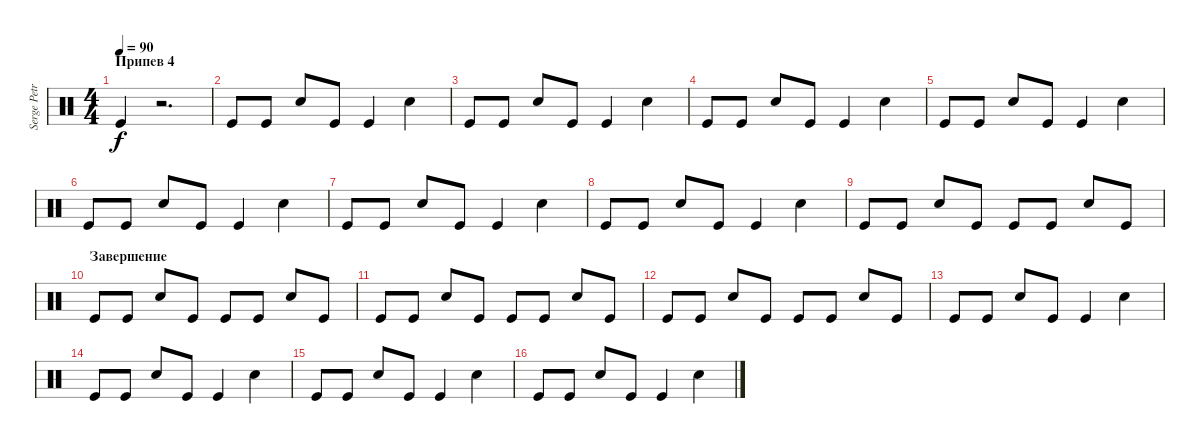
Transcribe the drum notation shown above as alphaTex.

\track ("Serge Petrone" "Serge Petr") {instrument percussion}
\staff {score}
\articulation defaults
\ts (4 4)
\section ("" "Припев 4")
\tempo 90
\clef neutral
\ks c "Kick (hit)".4{dy f}
r.2{d} |
"Kick (hit)".8 "Kick (hit)".8 "Snare (hit) 2".8 "Kick (hit)".8 "Kick (hit)".4 "Snare (hit) 2".4 |
"Kick (hit)".8 "Kick (hit)".8 "Snare (hit) 2".8 "Kick (hit)".8 "Kick (hit)".4 "Snare (hit) 2".4 |
"Kick (hit)".8 "Kick (hit)".8 "Snare (hit) 2".8 "Kick (hit)".8 "Kick (hit)".4 "Snare (hit) 2".4 |
"Kick (hit)".8 "Kick (hit)".8 "Snare (hit) 2".8 "Kick (hit)".8 "Kick (hit)".4 "Snare (hit) 2".4 |
"Kick (hit)".8 "Kick (hit)".8 "Snare (hit) 2".8 "Kick (hit)".8 "Kick (hit)".4 "Snare (hit) 2".4 |
"Kick (hit)".8 "Kick (hit)".8 "Snare (hit) 2".8 "Kick (hit)".8 "Kick (hit)".4 "Snare (hit) 2".4 |
"Kick (hit)".8 "Kick (hit)".8 "Snare (hit) 2".8 "Kick (hit)".8 "Kick (hit)".4 "Snare (hit) 2".4 |
"Kick (hit)".8 "Kick (hit)".8 "Snare (hit) 2".8 "Kick (hit)".8 "Kick (hit)".8 "Kick (hit)".8 "Snare (hit) 2".8 "Kick (hit)".8 |
\section ("" "Завершение")
"Kick (hit)".8 "Kick (hit)".8 "Snare (hit) 2".8 "Kick (hit)".8 "Kick (hit)".8 "Kick (hit)".8 "Snare (hit) 2".8 "Kick (hit)".8 |
"Kick (hit)".8 "Kick (hit)".8 "Snare (hit) 2".8 "Kick (hit)".8 "Kick (hit)".8 "Kick (hit)".8 "Snare (hit) 2".8 "Kick (hit)".8 |
"Kick (hit)".8 "Kick (hit)".8 "Snare (hit) 2".8 "Kick (hit)".8 "Kick (hit)".8 "Kick (hit)".8 "Snare (hit) 2".8 "Kick (hit)".8 |
"Kick (hit)".8 "Kick (hit)".8 "Snare (hit) 2".8 "Kick (hit)".8 "Kick (hit)".4 "Snare (hit) 2".4 |
"Kick (hit)".8 "Kick (hit)".8 "Snare (hit) 2".8 "Kick (hit)".8 "Kick (hit)".4 "Snare (hit) 2".4 |
"Kick (hit)".8 "Kick (hit)".8 "Snare (hit) 2".8 "Kick (hit)".8 "Kick (hit)".4 "Snare (hit) 2".4 |
"Kick (hit)".8 "Kick (hit)".8 "Snare (hit) 2".8 "Kick (hit)".8 "Kick (hit)".4 "Snare (hit) 2".4
